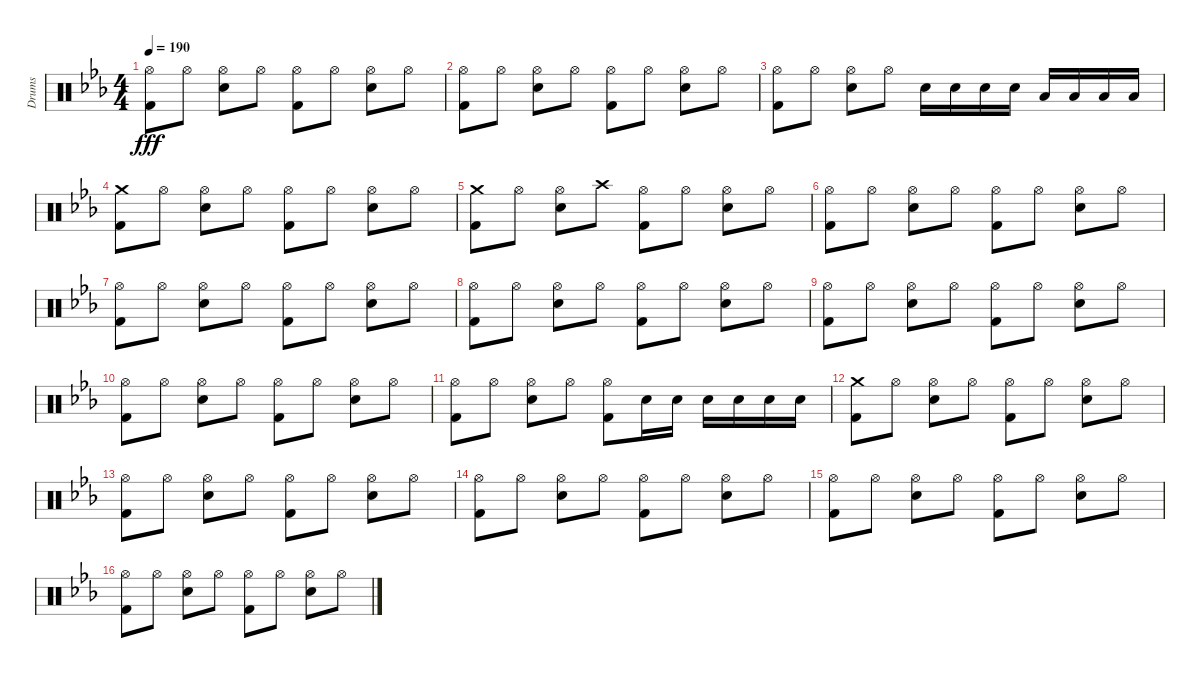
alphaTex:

\track ("Drums" "Drums") {instrument percussion}
\staff {score}
\articulation defaults
\ts (4 4)
\tempo 190
\clef neutral
\ks eb
("Hi-Hat (open)" "Kick (hit) 2").8{dy fff} "Hi-Hat (open)".8 ("Hi-Hat (open)" "Electric Snare (hit)").8 "Hi-Hat (open)".8 ("Hi-Hat (open)" "Kick (hit) 2").8 "Hi-Hat (open)".8 ("Hi-Hat (open)" "Electric Snare (hit)").8 "Hi-Hat (open)".8 |
("Hi-Hat (open)" "Kick (hit) 2").8 "Hi-Hat (open)".8 ("Hi-Hat (open)" "Electric Snare (hit)").8 "Hi-Hat (open)".8 ("Hi-Hat (open)" "Kick (hit) 2").8 "Hi-Hat (open)".8 ("Hi-Hat (open)" "Electric Snare (hit)").8 "Hi-Hat (open)".8 |
("Hi-Hat (open)" "Kick (hit) 2").8 "Hi-Hat (open)".8 ("Hi-Hat (open)" "Electric Snare (hit)").8 "Hi-Hat (open)".8 "Electric Snare (hit)".16 "Electric Snare (hit)".16 "Electric Snare (hit)".16 "Electric Snare (hit)".16 "Low Tom (hit)".16 "Low Tom (hit)".16 "Low Tom (hit)".16 "Low Tom (hit)".16 |
("Crash medium (hit)" "Kick (hit) 2").8 "Hi-Hat (open)".8 ("Hi-Hat (open)" "Electric Snare (hit)").8 "Hi-Hat (open)".8 ("Hi-Hat (open)" "Kick (hit) 2").8 "Hi-Hat (open)".8 ("Hi-Hat (open)" "Electric Snare (hit)").8 "Hi-Hat (open)".8 |
("Crash medium (hit)" "Kick (hit) 2").8 "Hi-Hat (open)".8 ("Hi-Hat (open)" "Electric Snare (hit)").8 "Crash high (hit)".8 ("Hi-Hat (open)" "Kick (hit) 2").8 "Hi-Hat (open)".8 ("Hi-Hat (open)" "Electric Snare (hit)").8 "Hi-Hat (open)".8 |
("Hi-Hat (open)" "Kick (hit) 2").8 "Hi-Hat (open)".8 ("Hi-Hat (open)" "Electric Snare (hit)").8 "Hi-Hat (open)".8 ("Hi-Hat (open)" "Kick (hit) 2").8 "Hi-Hat (open)".8 ("Hi-Hat (open)" "Electric Snare (hit)").8 "Hi-Hat (open)".8 |
("Hi-Hat (open)" "Kick (hit) 2").8 "Hi-Hat (open)".8 ("Hi-Hat (open)" "Electric Snare (hit)").8 "Hi-Hat (open)".8 ("Hi-Hat (open)" "Kick (hit) 2").8 "Hi-Hat (open)".8 ("Hi-Hat (open)" "Electric Snare (hit)").8 "Hi-Hat (open)".8 |
("Hi-Hat (open)" "Kick (hit) 2").8 "Hi-Hat (open)".8 ("Hi-Hat (open)" "Electric Snare (hit)").8 "Hi-Hat (open)".8 ("Hi-Hat (open)" "Kick (hit) 2").8 "Hi-Hat (open)".8 ("Hi-Hat (open)" "Electric Snare (hit)").8 "Hi-Hat (open)".8 |
("Hi-Hat (open)" "Kick (hit) 2").8 "Hi-Hat (open)".8 ("Hi-Hat (open)" "Electric Snare (hit)").8 "Hi-Hat (open)".8 ("Hi-Hat (open)" "Kick (hit) 2").8 "Hi-Hat (open)".8 ("Hi-Hat (open)" "Electric Snare (hit)").8 "Hi-Hat (open)".8 |
("Hi-Hat (open)" "Kick (hit) 2").8 "Hi-Hat (open)".8 ("Hi-Hat (open)" "Electric Snare (hit)").8 "Hi-Hat (open)".8 ("Hi-Hat (open)" "Kick (hit) 2").8 "Hi-Hat (open)".8 ("Hi-Hat (open)" "Electric Snare (hit)").8 "Hi-Hat (open)".8 |
("Hi-Hat (open)" "Kick (hit) 2").8 "Hi-Hat (open)".8 ("Hi-Hat (open)" "Electric Snare (hit)").8 "Hi-Hat (open)".8 ("Hi-Hat (open)" "Kick (hit) 2").8 "Electric Snare (hit)".16 "Electric Snare (hit)".16 "Electric Snare (hit)".16 "Electric Snare (hit)".16 "Electric Snare (hit)".16 "Electric Snare (hit)".16 |
("Crash medium (hit)" "Kick (hit) 2").8 "Hi-Hat (open)".8 ("Hi-Hat (open)" "Electric Snare (hit)").8 "Hi-Hat (open)".8 ("Hi-Hat (open)" "Kick (hit) 2").8 "Hi-Hat (open)".8 ("Hi-Hat (open)" "Electric Snare (hit)").8 "Hi-Hat (open)".8 |
("Hi-Hat (open)" "Kick (hit) 2").8 "Hi-Hat (open)".8 ("Hi-Hat (open)" "Electric Snare (hit)").8 "Hi-Hat (open)".8 ("Hi-Hat (open)" "Kick (hit) 2").8 "Hi-Hat (open)".8 ("Hi-Hat (open)" "Electric Snare (hit)").8 "Hi-Hat (open)".8 |
("Hi-Hat (open)" "Kick (hit) 2").8 "Hi-Hat (open)".8 ("Hi-Hat (open)" "Electric Snare (hit)").8 "Hi-Hat (open)".8 ("Hi-Hat (open)" "Kick (hit) 2").8 "Hi-Hat (open)".8 ("Hi-Hat (open)" "Electric Snare (hit)").8 "Hi-Hat (open)".8 |
("Hi-Hat (open)" "Kick (hit) 2").8 "Hi-Hat (open)".8 ("Hi-Hat (open)" "Electric Snare (hit)").8 "Hi-Hat (open)".8 ("Hi-Hat (open)" "Kick (hit) 2").8 "Hi-Hat (open)".8 ("Hi-Hat (open)" "Electric Snare (hit)").8 "Hi-Hat (open)".8 |
("Hi-Hat (open)" "Kick (hit) 2").8 "Hi-Hat (open)".8 ("Hi-Hat (open)" "Electric Snare (hit)").8 "Hi-Hat (open)".8 ("Hi-Hat (open)" "Kick (hit) 2").8 "Hi-Hat (open)".8 ("Hi-Hat (open)" "Electric Snare (hit)").8 "Hi-Hat (open)".8
